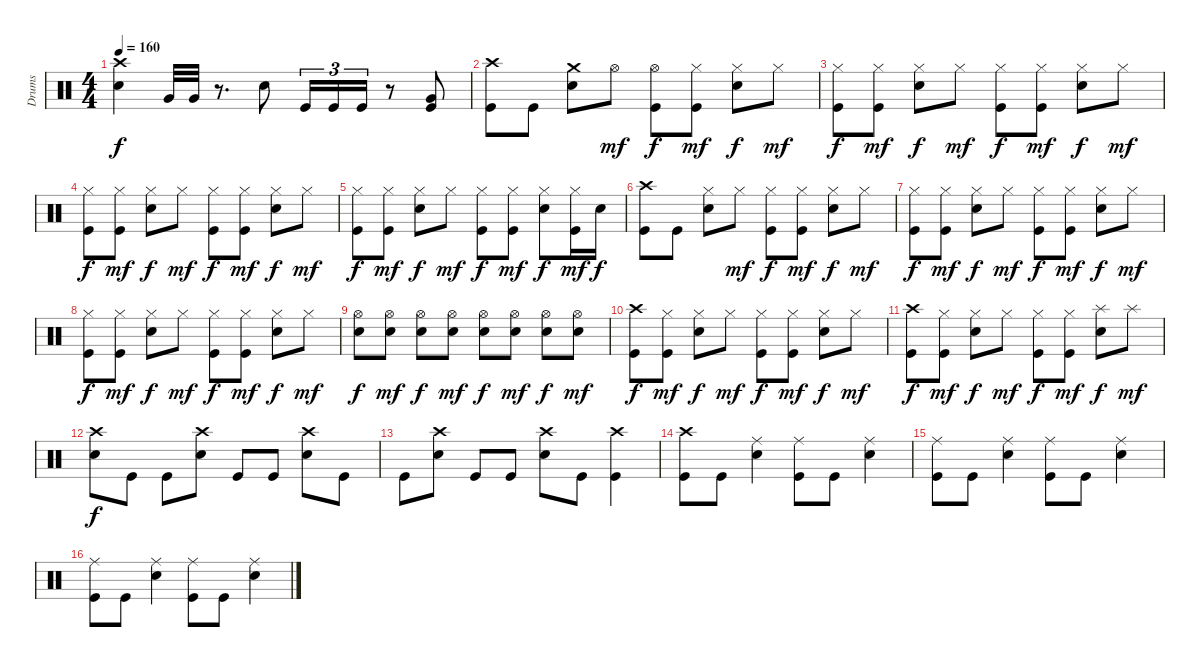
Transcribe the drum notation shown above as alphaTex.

\track ("Drums" "Drums") {instrument percussion}
\staff {score}
\articulation defaults
\ts (4 4)
\tempo 160
\clef neutral
\ks c
("Crash high (hit)" "Snare (hit) 2").4{dy f} "Very Low Tom (hit)".32 "Very Low Tom (hit)".32 r.8{d} "Snare (hit) 2".8 "Kick (hit)".16{tu (3 2)} "Kick (hit)".16{tu (3 2)} "Kick (hit)".16{tu (3 2)} r.8 ("Kick (hit)" "Very Low Tom (hit)").8 |
("Crash high (hit)" "Kick (hit)").8 "Kick (hit)".8 ("Crash medium (hit)" "Snare (hit) 2").8 "Hi-Hat (open)".8{dy mf} ("Hi-Hat (open)" "Kick (hit)").8{dy f} ("Hi-Hat (closed)" "Kick (hit)").8{dy mf} ("Hi-Hat (closed)" "Snare (hit) 2").8{dy f} "Hi-Hat (closed)".8{dy mf} |
("Hi-Hat (closed)" "Kick (hit)").8{dy f} ("Hi-Hat (closed)" "Kick (hit)").8{dy mf} ("Hi-Hat (closed)" "Snare (hit) 2").8{dy f} "Hi-Hat (closed)".8{dy mf} ("Hi-Hat (closed)" "Kick (hit)").8{dy f} ("Hi-Hat (closed)" "Kick (hit)").8{dy mf} ("Hi-Hat (closed)" "Snare (hit) 2").8{dy f} "Hi-Hat (closed)".8{dy mf} |
("Hi-Hat (closed)" "Kick (hit)").8{dy f} ("Hi-Hat (closed)" "Kick (hit)").8{dy mf} ("Hi-Hat (closed)" "Snare (hit) 2").8{dy f} "Hi-Hat (closed)".8{dy mf} ("Hi-Hat (closed)" "Kick (hit)").8{dy f} ("Hi-Hat (closed)" "Kick (hit)").8{dy mf} ("Hi-Hat (closed)" "Snare (hit) 2").8{dy f} "Hi-Hat (closed)".8{dy mf} |
("Hi-Hat (closed)" "Kick (hit)").8{dy f} ("Hi-Hat (closed)" "Kick (hit)").8{dy mf} ("Hi-Hat (closed)" "Snare (hit) 2").8{dy f} "Hi-Hat (closed)".8{dy mf} ("Hi-Hat (closed)" "Kick (hit)").8{dy f} ("Hi-Hat (closed)" "Kick (hit)").8{dy mf} ("Hi-Hat (closed)" "Snare (hit) 2").8{dy f} ("Hi-Hat (closed)" "Kick (hit)").16{dy mf} "Snare (hit) 2".16{dy f} |
("Crash high (hit)" "Kick (hit)").8 "Kick (hit)".8 ("Hi-Hat (closed)" "Snare (hit) 2").8 "Hi-Hat (closed)".8{dy mf} ("Hi-Hat (closed)" "Kick (hit)").8{dy f} ("Hi-Hat (closed)" "Kick (hit)").8{dy mf} ("Hi-Hat (closed)" "Snare (hit) 2").8{dy f} "Hi-Hat (closed)".8{dy mf} |
("Hi-Hat (closed)" "Kick (hit)").8{dy f} ("Hi-Hat (closed)" "Kick (hit)").8{dy mf} ("Hi-Hat (closed)" "Snare (hit) 2").8{dy f} "Hi-Hat (closed)".8{dy mf} ("Hi-Hat (closed)" "Kick (hit)").8{dy f} ("Hi-Hat (closed)" "Kick (hit)").8{dy mf} ("Hi-Hat (closed)" "Snare (hit) 2").8{dy f} "Hi-Hat (closed)".8{dy mf} |
("Hi-Hat (closed)" "Kick (hit)").8{dy f} ("Hi-Hat (closed)" "Kick (hit)").8{dy mf} ("Hi-Hat (closed)" "Snare (hit) 2").8{dy f} "Hi-Hat (closed)".8{dy mf} ("Hi-Hat (closed)" "Kick (hit)").8{dy f} ("Hi-Hat (closed)" "Kick (hit)").8{dy mf} ("Hi-Hat (closed)" "Snare (hit) 2").8{dy f} "Hi-Hat (closed)".8{dy mf} |
("Hi-Hat (open)" "Snare (hit) 2").8{dy f} ("Hi-Hat (open)" "Snare (hit) 2").8{dy mf} ("Hi-Hat (open)" "Snare (hit) 2").8{dy f} ("Hi-Hat (open)" "Snare (hit) 2").8{dy mf} ("Hi-Hat (open)" "Snare (hit) 2").8{dy f} ("Hi-Hat (open)" "Snare (hit) 2").8{dy mf} ("Hi-Hat (open)" "Snare (hit) 2").8{dy f} ("Hi-Hat (open)" "Snare (hit) 2").8{dy mf} |
("Crash high (hit)" "Kick (hit)").8{dy f} ("Hi-Hat (closed)" "Kick (hit)").8{dy mf} ("Hi-Hat (closed)" "Snare (hit) 2").8{dy f} "Hi-Hat (closed)".8{dy mf} ("Hi-Hat (closed)" "Kick (hit)").8{dy f} ("Hi-Hat (closed)" "Kick (hit)").8{dy mf} ("Hi-Hat (closed)" "Snare (hit) 2").8{dy f} "Hi-Hat (closed)".8{dy mf} |
("Crash high (hit)" "Kick (hit)").8{dy f} ("Hi-Hat (closed)" "Kick (hit)").8{dy mf} ("Hi-Hat (closed)" "Snare (hit) 2").8{dy f} "Hi-Hat (closed)".8{dy mf} ("Hi-Hat (closed)" "Kick (hit)").8{dy f} ("Hi-Hat (closed)" "Kick (hit)").8{dy mf} ("Splash (hit)" "Snare (hit) 2").8{dy f} "Splash (hit)".8{dy mf} |
("Crash high (hit)" "Snare (hit) 2").8{dy f} "Kick (hit)".8 "Kick (hit)".8 ("Crash high (hit)" "Snare (hit) 2").8 "Kick (hit)".8 "Kick (hit)".8 ("Crash high (hit)" "Snare (hit) 2").8 "Kick (hit)".8 |
"Kick (hit)".8 ("Crash high (hit)" "Snare (hit) 2").8 "Kick (hit)".8 "Kick (hit)".8 ("Crash high (hit)" "Snare (hit) 2").8 "Kick (hit)".8 ("Crash high (hit)" "Kick (hit)").4 |
("Crash high (hit)" "Kick (hit)").8 "Kick (hit)".8 ("Ride (middle)" "Snare (hit) 2").4 ("Ride (middle)" "Kick (hit)").8 "Kick (hit)".8 ("Ride (middle)" "Snare (hit) 2").4 |
("Ride (middle)" "Kick (hit)").8 "Kick (hit)".8 ("Ride (middle)" "Snare (hit) 2").4 ("Ride (middle)" "Kick (hit)").8 "Kick (hit)".8 ("Ride (middle)" "Snare (hit) 2").4 |
("Ride (middle)" "Kick (hit)").8 "Kick (hit)".8 ("Ride (middle)" "Snare (hit) 2").4 ("Ride (middle)" "Kick (hit)").8 "Kick (hit)".8 ("Ride (middle)" "Snare (hit) 2").4
